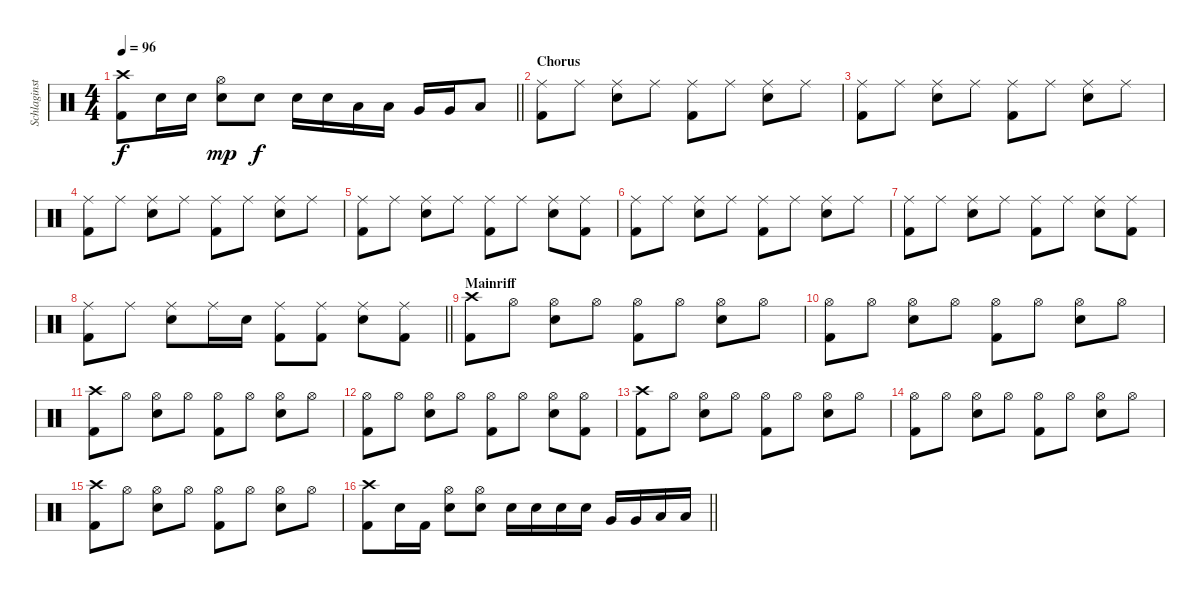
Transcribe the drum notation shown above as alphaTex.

\track ("Schlaginstrumente - Auswahl" "Schlaginst") {instrument percussion}
\staff {score}
\articulation defaults
\ts (4 4)
\tempo 96
\clef neutral
\barLineRight lightlight
\ks c
("Crash high (hit)" "Kick (hit) 2").8{dy f} "Electric Snare (hit)".16 "Electric Snare (hit)".16 ("Hi-Hat (open)" "Electric Snare (hit)").8{dy mp} "Electric Snare (hit)".8{dy f} "Electric Snare (hit)".16 "Electric Snare (hit)".16 "Low Tom (hit)".16 "Low Tom (hit)".16 "Very Low Tom (hit)".16 "Very Low Tom (hit)".16 "Low Floor Tom (hit)".8 |
\section ("" "Chorus")
("Ride (middle)" "Kick (hit) 2").8 "Ride (middle)".8 ("Ride (middle)" "Electric Snare (hit)").8 "Ride (middle)".8 ("Ride (middle)" "Kick (hit) 2").8 "Ride (middle)".8 ("Ride (middle)" "Electric Snare (hit)").8 "Ride (middle)".8 |
("Ride (middle)" "Kick (hit) 2").8 "Ride (middle)".8 ("Ride (middle)" "Electric Snare (hit)").8 "Ride (middle)".8 ("Ride (middle)" "Kick (hit) 2").8 "Ride (middle)".8 ("Ride (middle)" "Electric Snare (hit)").8 "Ride (middle)".8 |
("Ride (middle)" "Kick (hit) 2").8 "Ride (middle)".8 ("Ride (middle)" "Electric Snare (hit)").8 "Ride (middle)".8 ("Ride (middle)" "Kick (hit) 2").8 "Ride (middle)".8 ("Ride (middle)" "Electric Snare (hit)").8 "Ride (middle)".8 |
("Ride (middle)" "Kick (hit) 2").8 "Ride (middle)".8 ("Ride (middle)" "Electric Snare (hit)").8 "Ride (middle)".8 ("Ride (middle)" "Kick (hit) 2").8 "Ride (middle)".8 ("Ride (middle)" "Electric Snare (hit)").8 ("Ride (middle)" "Kick (hit) 2").8 |
("Ride (middle)" "Kick (hit) 2").8 "Ride (middle)".8 ("Ride (middle)" "Electric Snare (hit)").8 "Ride (middle)".8 ("Ride (middle)" "Kick (hit) 2").8 "Ride (middle)".8 ("Ride (middle)" "Electric Snare (hit)").8 "Ride (middle)".8 |
("Ride (middle)" "Kick (hit) 2").8 "Ride (middle)".8 ("Ride (middle)" "Electric Snare (hit)").8 "Ride (middle)".8 ("Ride (middle)" "Kick (hit) 2").8 "Ride (middle)".8 ("Ride (middle)" "Electric Snare (hit)").8 ("Ride (middle)" "Kick (hit) 2").8 |
\barLineRight lightlight
("Ride (middle)" "Kick (hit) 2").8 "Ride (middle)".8 ("Ride (middle)" "Electric Snare (hit)").8 "Ride (middle)".16 "Electric Snare (hit)".16 ("Ride (middle)" "Kick (hit) 2").8 ("Ride (middle)" "Kick (hit) 2").8 ("Ride (middle)" "Electric Snare (hit)").8 ("Ride (middle)" "Kick (hit) 2").8 |
\section ("" "Mainriff")
("Crash high (hit)" "Kick (hit) 2").8 "Hi-Hat (open)".8 ("Hi-Hat (open)" "Electric Snare (hit)").8 "Hi-Hat (open)".8 ("Hi-Hat (open)" "Kick (hit) 2").8 "Hi-Hat (open)".8 ("Hi-Hat (open)" "Electric Snare (hit)").8 "Hi-Hat (open)".8 |
("Hi-Hat (open)" "Kick (hit) 2").8 "Hi-Hat (open)".8 ("Hi-Hat (open)" "Electric Snare (hit)").8 "Hi-Hat (open)".8 ("Hi-Hat (open)" "Kick (hit) 2").8 "Hi-Hat (open)".8 ("Hi-Hat (open)" "Electric Snare (hit)").8 "Hi-Hat (open)".8 |
("Crash high (hit)" "Kick (hit) 2").8 "Hi-Hat (open)".8 ("Hi-Hat (open)" "Electric Snare (hit)").8 "Hi-Hat (open)".8 ("Hi-Hat (open)" "Kick (hit) 2").8 "Hi-Hat (open)".8 ("Hi-Hat (open)" "Electric Snare (hit)").8 "Hi-Hat (open)".8 |
("Hi-Hat (open)" "Kick (hit) 2").8 "Hi-Hat (open)".8 ("Hi-Hat (open)" "Electric Snare (hit)").8 "Hi-Hat (open)".8 ("Hi-Hat (open)" "Kick (hit) 2").8 "Hi-Hat (open)".8 ("Hi-Hat (open)" "Electric Snare (hit)").8 ("Hi-Hat (open)" "Kick (hit) 2").8 |
("Crash high (hit)" "Kick (hit) 2").8 "Hi-Hat (open)".8 ("Hi-Hat (open)" "Electric Snare (hit)").8 "Hi-Hat (open)".8 ("Hi-Hat (open)" "Kick (hit) 2").8 "Hi-Hat (open)".8 ("Hi-Hat (open)" "Electric Snare (hit)").8 "Hi-Hat (open)".8 |
("Hi-Hat (open)" "Kick (hit) 2").8 "Hi-Hat (open)".8 ("Hi-Hat (open)" "Electric Snare (hit)").8 "Hi-Hat (open)".8 ("Hi-Hat (open)" "Kick (hit) 2").8 "Hi-Hat (open)".8 ("Hi-Hat (open)" "Electric Snare (hit)").8 "Hi-Hat (open)".8 |
("Crash high (hit)" "Kick (hit) 2").8 "Hi-Hat (open)".8 ("Hi-Hat (open)" "Electric Snare (hit)").8 "Hi-Hat (open)".8 ("Hi-Hat (open)" "Kick (hit) 2").8 "Hi-Hat (open)".8 ("Hi-Hat (open)" "Electric Snare (hit)").8 "Hi-Hat (open)".8 |
\barLineRight lightlight
("Crash high (hit)" "Kick (hit) 2").8 "Electric Snare (hit)".16 "Kick (hit) 2".16 ("Hi-Hat (open)" "Electric Snare (hit)").8 ("Hi-Hat (open)" "Electric Snare (hit)").8 "Electric Snare (hit)".16 "Electric Snare (hit)".16 "Electric Snare (hit)".16 "Electric Snare (hit)".16 "Very Low Tom (hit)".16 "Very Low Tom (hit)".16 "Low Floor Tom (hit)".16 "Low Floor Tom (hit)".16
